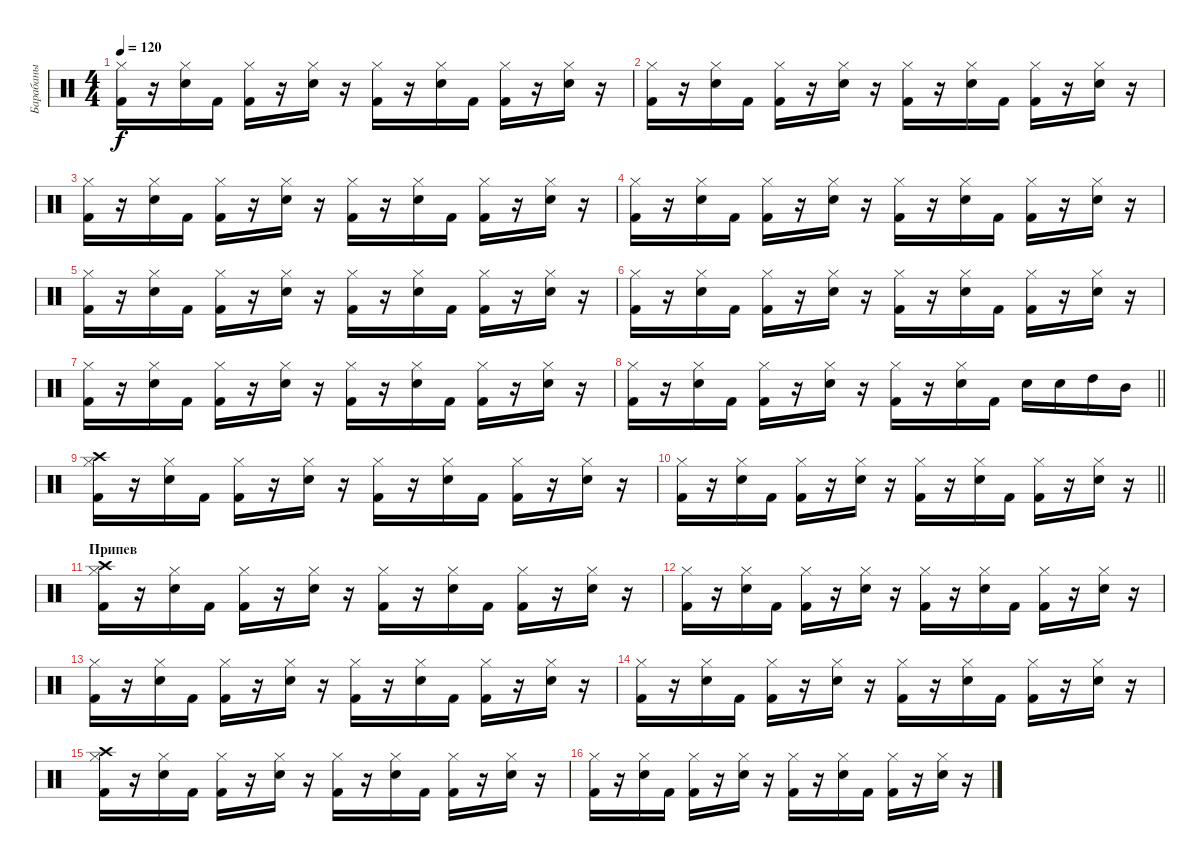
\track ("Барабаны" "Барабаны") {instrument percussion}
\staff {score}
\articulation defaults
\ts (4 4)
\tempo 120
\clef neutral
\ks c
("Hi-Hat (closed)" "Kick (hit) 2").16{dy f} r.16 ("Hi-Hat (closed)" "Electric Snare (hit)").16 "Kick (hit) 2".16 ("Hi-Hat (closed)" "Kick (hit) 2").16 r.16 ("Hi-Hat (closed)" "Electric Snare (hit)").16 r.16 ("Hi-Hat (closed)" "Kick (hit) 2").16 r.16 ("Hi-Hat (closed)" "Electric Snare (hit)").16 "Kick (hit) 2".16 ("Hi-Hat (closed)" "Kick (hit) 2").16 r.16 ("Hi-Hat (closed)" "Electric Snare (hit)").16 r.16 |
("Hi-Hat (closed)" "Kick (hit) 2").16 r.16 ("Hi-Hat (closed)" "Electric Snare (hit)").16 "Kick (hit) 2".16 ("Hi-Hat (closed)" "Kick (hit) 2").16 r.16 ("Hi-Hat (closed)" "Electric Snare (hit)").16 r.16 ("Hi-Hat (closed)" "Kick (hit) 2").16 r.16 ("Hi-Hat (closed)" "Electric Snare (hit)").16 "Kick (hit) 2".16 ("Hi-Hat (closed)" "Kick (hit) 2").16 r.16 ("Hi-Hat (closed)" "Electric Snare (hit)").16 r.16 |
("Hi-Hat (closed)" "Kick (hit) 2").16 r.16 ("Hi-Hat (closed)" "Electric Snare (hit)").16 "Kick (hit) 2".16 ("Hi-Hat (closed)" "Kick (hit) 2").16 r.16 ("Hi-Hat (closed)" "Electric Snare (hit)").16 r.16 ("Hi-Hat (closed)" "Kick (hit) 2").16 r.16 ("Hi-Hat (closed)" "Electric Snare (hit)").16 "Kick (hit) 2".16 ("Hi-Hat (closed)" "Kick (hit) 2").16 r.16 ("Hi-Hat (closed)" "Electric Snare (hit)").16 r.16 |
("Hi-Hat (closed)" "Kick (hit) 2").16 r.16 ("Hi-Hat (closed)" "Electric Snare (hit)").16 "Kick (hit) 2".16 ("Hi-Hat (closed)" "Kick (hit) 2").16 r.16 ("Hi-Hat (closed)" "Electric Snare (hit)").16 r.16 ("Hi-Hat (closed)" "Kick (hit) 2").16 r.16 ("Hi-Hat (closed)" "Electric Snare (hit)").16 "Kick (hit) 2".16 ("Hi-Hat (closed)" "Kick (hit) 2").16 r.16 ("Hi-Hat (closed)" "Electric Snare (hit)").16 r.16 |
("Hi-Hat (closed)" "Kick (hit) 2").16 r.16 ("Hi-Hat (closed)" "Electric Snare (hit)").16 "Kick (hit) 2".16 ("Hi-Hat (closed)" "Kick (hit) 2").16 r.16 ("Hi-Hat (closed)" "Electric Snare (hit)").16 r.16 ("Hi-Hat (closed)" "Kick (hit) 2").16 r.16 ("Hi-Hat (closed)" "Electric Snare (hit)").16 "Kick (hit) 2".16 ("Hi-Hat (closed)" "Kick (hit) 2").16 r.16 ("Hi-Hat (closed)" "Electric Snare (hit)").16 r.16 |
("Hi-Hat (closed)" "Kick (hit) 2").16 r.16 ("Hi-Hat (closed)" "Electric Snare (hit)").16 "Kick (hit) 2".16 ("Hi-Hat (closed)" "Kick (hit) 2").16 r.16 ("Hi-Hat (closed)" "Electric Snare (hit)").16 r.16 ("Hi-Hat (closed)" "Kick (hit) 2").16 r.16 ("Hi-Hat (closed)" "Electric Snare (hit)").16 "Kick (hit) 2".16 ("Hi-Hat (closed)" "Kick (hit) 2").16 r.16 ("Hi-Hat (closed)" "Electric Snare (hit)").16 r.16 |
("Hi-Hat (closed)" "Kick (hit) 2").16 r.16 ("Hi-Hat (closed)" "Electric Snare (hit)").16 "Kick (hit) 2".16 ("Hi-Hat (closed)" "Kick (hit) 2").16 r.16 ("Hi-Hat (closed)" "Electric Snare (hit)").16 r.16 ("Hi-Hat (closed)" "Kick (hit) 2").16 r.16 ("Hi-Hat (closed)" "Electric Snare (hit)").16 "Kick (hit) 2".16 ("Hi-Hat (closed)" "Kick (hit) 2").16 r.16 ("Hi-Hat (closed)" "Electric Snare (hit)").16 r.16 |
\barLineRight lightlight
("Hi-Hat (closed)" "Kick (hit) 2").16 r.16 ("Hi-Hat (closed)" "Electric Snare (hit)").16 "Kick (hit) 2".16 ("Hi-Hat (closed)" "Kick (hit) 2").16 r.16 ("Hi-Hat (closed)" "Electric Snare (hit)").16 r.16 ("Hi-Hat (closed)" "Kick (hit) 2").16 r.16 ("Hi-Hat (closed)" "Electric Snare (hit)").16 "Kick (hit) 2".16 "Electric Snare (hit)".16 "Electric Snare (hit)".16 "High Tom (hit)".16 "Mid Tom (hit)".16 |
\section ("" "")
("Hi-Hat (closed)" "Kick (hit) 2" "Crash high (hit)").16 r.16 ("Hi-Hat (closed)" "Electric Snare (hit)").16 "Kick (hit) 2".16 ("Hi-Hat (closed)" "Kick (hit) 2").16 r.16 ("Hi-Hat (closed)" "Electric Snare (hit)").16 r.16 ("Hi-Hat (closed)" "Kick (hit) 2").16 r.16 ("Hi-Hat (closed)" "Electric Snare (hit)").16 "Kick (hit) 2".16 ("Hi-Hat (closed)" "Kick (hit) 2").16 r.16 ("Hi-Hat (closed)" "Electric Snare (hit)").16 r.16 |
\barLineRight lightlight
("Hi-Hat (closed)" "Kick (hit) 2").16 r.16 ("Hi-Hat (closed)" "Electric Snare (hit)").16 "Kick (hit) 2".16 ("Hi-Hat (closed)" "Kick (hit) 2").16 r.16 ("Hi-Hat (closed)" "Electric Snare (hit)").16 r.16 ("Hi-Hat (closed)" "Kick (hit) 2").16 r.16 ("Hi-Hat (closed)" "Electric Snare (hit)").16 "Kick (hit) 2".16 ("Hi-Hat (closed)" "Kick (hit) 2").16 r.16 ("Hi-Hat (closed)" "Electric Snare (hit)").16 r.16 |
\section ("" "Припев")
("Hi-Hat (closed)" "Kick (hit) 2" "Crash high (hit)").16 r.16 ("Hi-Hat (closed)" "Electric Snare (hit)").16 "Kick (hit) 2".16 ("Hi-Hat (closed)" "Kick (hit) 2").16 r.16 ("Hi-Hat (closed)" "Electric Snare (hit)").16 r.16 ("Hi-Hat (closed)" "Kick (hit) 2").16 r.16 ("Hi-Hat (closed)" "Electric Snare (hit)").16 "Kick (hit) 2".16 ("Hi-Hat (closed)" "Kick (hit) 2").16 r.16 ("Hi-Hat (closed)" "Electric Snare (hit)").16 r.16 |
("Hi-Hat (closed)" "Kick (hit) 2").16 r.16 ("Hi-Hat (closed)" "Electric Snare (hit)").16 "Kick (hit) 2".16 ("Hi-Hat (closed)" "Kick (hit) 2").16 r.16 ("Hi-Hat (closed)" "Electric Snare (hit)").16 r.16 ("Hi-Hat (closed)" "Kick (hit) 2").16 r.16 ("Hi-Hat (closed)" "Electric Snare (hit)").16 "Kick (hit) 2".16 ("Hi-Hat (closed)" "Kick (hit) 2").16 r.16 ("Hi-Hat (closed)" "Electric Snare (hit)").16 r.16 |
("Hi-Hat (closed)" "Kick (hit) 2").16 r.16 ("Hi-Hat (closed)" "Electric Snare (hit)").16 "Kick (hit) 2".16 ("Hi-Hat (closed)" "Kick (hit) 2").16 r.16 ("Hi-Hat (closed)" "Electric Snare (hit)").16 r.16 ("Hi-Hat (closed)" "Kick (hit) 2").16 r.16 ("Hi-Hat (closed)" "Electric Snare (hit)").16 "Kick (hit) 2".16 ("Hi-Hat (closed)" "Kick (hit) 2").16 r.16 ("Hi-Hat (closed)" "Electric Snare (hit)").16 r.16 |
("Hi-Hat (closed)" "Kick (hit) 2").16 r.16 ("Hi-Hat (closed)" "Electric Snare (hit)").16 "Kick (hit) 2".16 ("Hi-Hat (closed)" "Kick (hit) 2").16 r.16 ("Hi-Hat (closed)" "Electric Snare (hit)").16 r.16 ("Hi-Hat (closed)" "Kick (hit) 2").16 r.16 ("Hi-Hat (closed)" "Electric Snare (hit)").16 "Kick (hit) 2".16 ("Hi-Hat (closed)" "Kick (hit) 2").16 r.16 ("Hi-Hat (closed)" "Electric Snare (hit)").16 r.16 |
("Hi-Hat (closed)" "Kick (hit) 2" "Crash high (hit)").16 r.16 ("Hi-Hat (closed)" "Electric Snare (hit)").16 "Kick (hit) 2".16 ("Hi-Hat (closed)" "Kick (hit) 2").16 r.16 ("Hi-Hat (closed)" "Electric Snare (hit)").16 r.16 ("Hi-Hat (closed)" "Kick (hit) 2").16 r.16 ("Hi-Hat (closed)" "Electric Snare (hit)").16 "Kick (hit) 2".16 ("Hi-Hat (closed)" "Kick (hit) 2").16 r.16 ("Hi-Hat (closed)" "Electric Snare (hit)").16 r.16 |
("Hi-Hat (closed)" "Kick (hit) 2").16 r.16 ("Hi-Hat (closed)" "Electric Snare (hit)").16 "Kick (hit) 2".16 ("Hi-Hat (closed)" "Kick (hit) 2").16 r.16 ("Hi-Hat (closed)" "Electric Snare (hit)").16 r.16 ("Hi-Hat (closed)" "Kick (hit) 2").16 r.16 ("Hi-Hat (closed)" "Electric Snare (hit)").16 "Kick (hit) 2".16 ("Hi-Hat (closed)" "Kick (hit) 2").16 r.16 ("Hi-Hat (closed)" "Electric Snare (hit)").16 r.16
